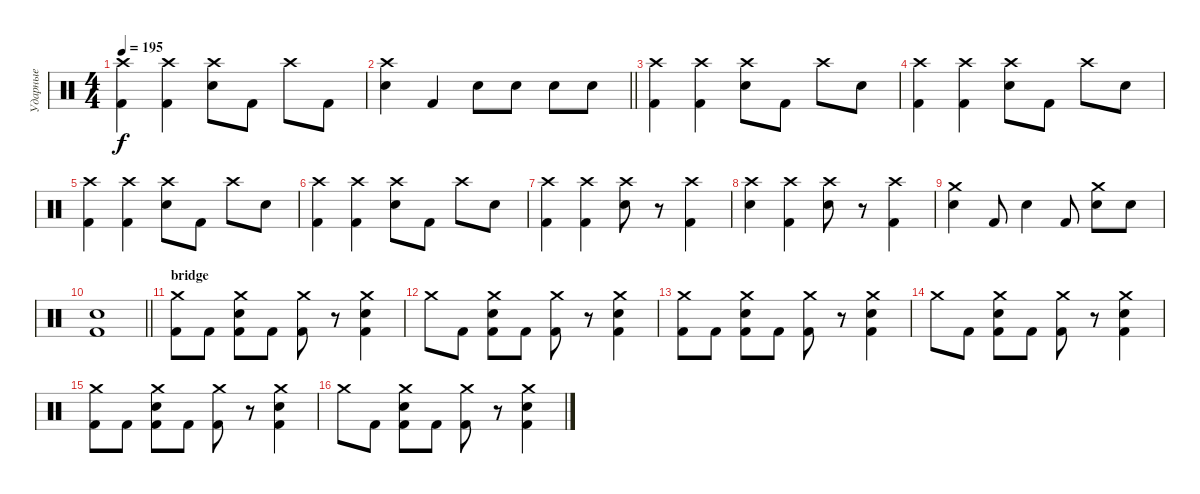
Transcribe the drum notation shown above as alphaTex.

\track ("Ударные" "Ударные") {instrument percussion}
\staff {score}
\articulation defaults
\ts (4 4)
\tempo 195
\clef neutral
\ks c
("Crash high (hit)" "Kick (hit) 2").4{dy f} ("Crash high (hit)" "Kick (hit) 2").4 ("Crash high (hit)" "Electric Snare (hit)").8 "Kick (hit) 2".8 "Crash high (hit)".8 "Kick (hit) 2".8 |
\barLineRight lightlight
("Crash high (hit)" "Electric Snare (hit)").4 "Kick (hit) 2".4 "Electric Snare (hit)".8 "Electric Snare (hit)".8 "Electric Snare (hit)".8 "Electric Snare (hit)".8 |
("Crash high (hit)" "Kick (hit) 2").4 ("Crash high (hit)" "Kick (hit) 2").4 ("Crash high (hit)" "Electric Snare (hit)").8 "Kick (hit) 2".8 "Crash high (hit)".8 "Electric Snare (hit)".8 |
("Crash high (hit)" "Kick (hit) 2").4 ("Crash high (hit)" "Kick (hit) 2").4 ("Crash high (hit)" "Electric Snare (hit)").8 "Kick (hit) 2".8 "Crash high (hit)".8 "Electric Snare (hit)".8 |
("Crash high (hit)" "Kick (hit) 2").4 ("Crash high (hit)" "Kick (hit) 2").4 ("Crash high (hit)" "Electric Snare (hit)").8 "Kick (hit) 2".8 "Crash high (hit)".8 "Electric Snare (hit)".8 |
("Crash high (hit)" "Kick (hit) 2").4 ("Crash high (hit)" "Kick (hit) 2").4 ("Crash high (hit)" "Electric Snare (hit)").8 "Kick (hit) 2".8 "Crash high (hit)".8 "Electric Snare (hit)".8 |
("Crash high (hit)" "Kick (hit) 2").4 ("Crash high (hit)" "Kick (hit) 2").4 ("Crash high (hit)" "Electric Snare (hit)").8 r.8 ("Crash high (hit)" "Kick (hit) 2").4 |
("Crash high (hit)" "Electric Snare (hit)").4 ("Crash high (hit)" "Kick (hit) 2").4 ("Crash high (hit)" "Electric Snare (hit)").8 r.8 ("Crash high (hit)" "Kick (hit) 2").4 |
("Crash medium (hit)" "Electric Snare (hit)").4 "Kick (hit) 2".8 "Electric Snare (hit)".4 "Kick (hit) 2".8 ("Crash medium (hit)" "Electric Snare (hit)").8 "Electric Snare (hit)".8 |
\barLineRight lightlight
("Electric Snare (hit)" "Kick (hit) 2").1 |
\section ("" "bridge")
("Crash medium (hit)" "Kick (hit) 2").8 "Kick (hit) 2".8 ("Crash medium (hit)" "Electric Snare (hit)" "Kick (hit) 2").8 "Kick (hit) 2".8 ("Crash medium (hit)" "Kick (hit) 2").8 r.8 ("Crash medium (hit)" "Electric Snare (hit)" "Kick (hit) 2").4 |
"Crash medium (hit)".8 "Kick (hit) 2".8 ("Crash medium (hit)" "Electric Snare (hit)" "Kick (hit) 2").8 "Kick (hit) 2".8 ("Crash medium (hit)" "Kick (hit) 2").8 r.8 ("Crash medium (hit)" "Electric Snare (hit)" "Kick (hit) 2").4 |
("Crash medium (hit)" "Kick (hit) 2").8 "Kick (hit) 2".8 ("Crash medium (hit)" "Electric Snare (hit)" "Kick (hit) 2").8 "Kick (hit) 2".8 ("Crash medium (hit)" "Kick (hit) 2").8 r.8 ("Crash medium (hit)" "Electric Snare (hit)" "Kick (hit) 2").4 |
"Crash medium (hit)".8 "Kick (hit) 2".8 ("Crash medium (hit)" "Electric Snare (hit)" "Kick (hit) 2").8 "Kick (hit) 2".8 ("Crash medium (hit)" "Kick (hit) 2").8 r.8 ("Crash medium (hit)" "Electric Snare (hit)" "Kick (hit) 2").4 |
("Crash medium (hit)" "Kick (hit) 2").8 "Kick (hit) 2".8 ("Crash medium (hit)" "Electric Snare (hit)" "Kick (hit) 2").8 "Kick (hit) 2".8 ("Crash medium (hit)" "Kick (hit) 2").8 r.8 ("Crash medium (hit)" "Electric Snare (hit)" "Kick (hit) 2").4 |
"Crash medium (hit)".8 "Kick (hit) 2".8 ("Crash medium (hit)" "Electric Snare (hit)" "Kick (hit) 2").8 "Kick (hit) 2".8 ("Crash medium (hit)" "Kick (hit) 2").8 r.8 ("Crash medium (hit)" "Electric Snare (hit)" "Kick (hit) 2").4
